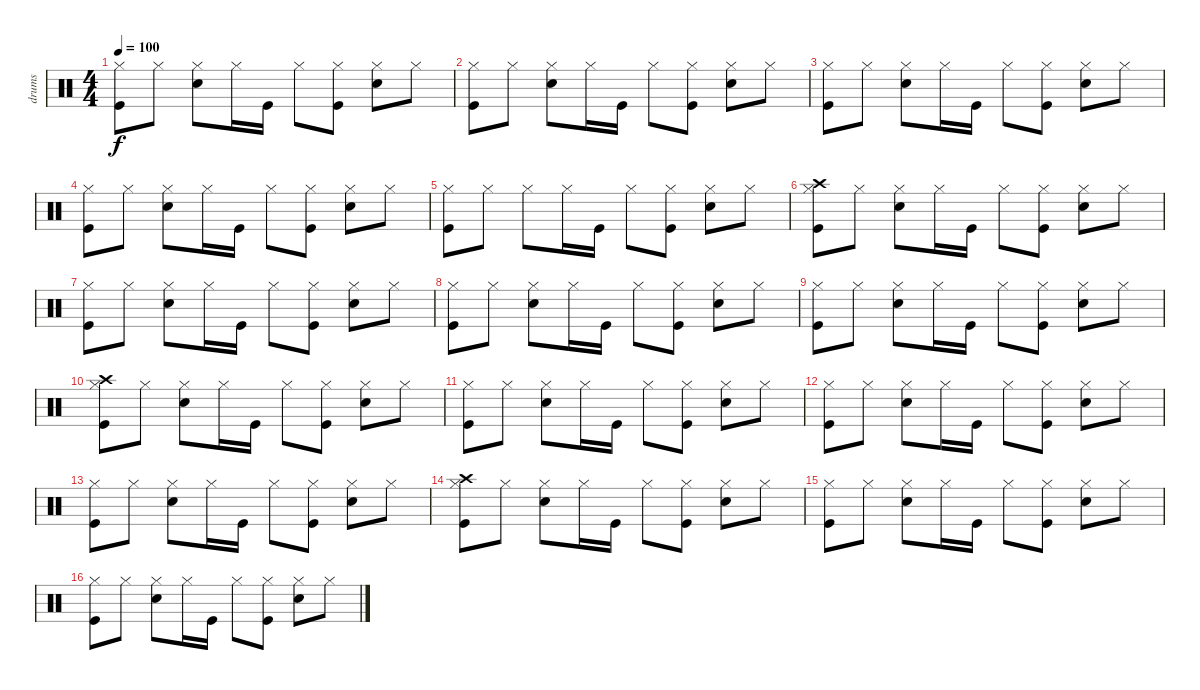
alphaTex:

\track ("drums" "drums") {instrument percussion}
\staff {score}
\articulation defaults
\ts (4 4)
\tempo 100
\clef neutral
\ks c
("Kick (hit)" "Hi-Hat (closed)").8{dy f} "Hi-Hat (closed)".8 ("Snare (hit) 2" "Hi-Hat (closed)").8 "Hi-Hat (closed)".16 "Kick (hit)".16 "Hi-Hat (closed)".8 ("Kick (hit)" "Hi-Hat (closed)").8 ("Snare (hit) 2" "Hi-Hat (closed)").8 "Hi-Hat (closed)".8 |
("Kick (hit)" "Hi-Hat (closed)").8 "Hi-Hat (closed)".8 ("Snare (hit) 2" "Hi-Hat (closed)").8 "Hi-Hat (closed)".16 "Kick (hit)".16 "Hi-Hat (closed)".8 ("Kick (hit)" "Hi-Hat (closed)").8 ("Snare (hit) 2" "Hi-Hat (closed)").8 "Hi-Hat (closed)".8 |
("Kick (hit)" "Hi-Hat (closed)").8 "Hi-Hat (closed)".8 ("Snare (hit) 2" "Hi-Hat (closed)").8 "Hi-Hat (closed)".16 "Kick (hit)".16 "Hi-Hat (closed)".8 ("Kick (hit)" "Hi-Hat (closed)").8 ("Snare (hit) 2" "Hi-Hat (closed)").8 "Hi-Hat (closed)".8 |
("Kick (hit)" "Hi-Hat (closed)").8 "Hi-Hat (closed)".8 ("Snare (hit) 2" "Hi-Hat (closed)").8 "Hi-Hat (closed)".16 "Kick (hit)".16 "Hi-Hat (closed)".8 ("Kick (hit)" "Hi-Hat (closed)").8 ("Snare (hit) 2" "Hi-Hat (closed)").8 "Hi-Hat (closed)".8 |
("Kick (hit)" "Hi-Hat (closed)").8 "Hi-Hat (closed)".8 "Hi-Hat (closed)".8 "Hi-Hat (closed)".16 "Kick (hit)".16 "Hi-Hat (closed)".8 ("Kick (hit)" "Hi-Hat (closed)").8 ("Snare (hit) 2" "Hi-Hat (closed)").8 "Hi-Hat (closed)".8 |
("Kick (hit)" "Hi-Hat (closed)" "Crash high (hit)").8 "Hi-Hat (closed)".8 ("Snare (hit) 2" "Hi-Hat (closed)").8 "Hi-Hat (closed)".16 "Kick (hit)".16 "Hi-Hat (closed)".8 ("Kick (hit)" "Hi-Hat (closed)").8 ("Snare (hit) 2" "Hi-Hat (closed)").8 "Hi-Hat (closed)".8 |
("Kick (hit)" "Hi-Hat (closed)").8 "Hi-Hat (closed)".8 ("Snare (hit) 2" "Hi-Hat (closed)").8 "Hi-Hat (closed)".16 "Kick (hit)".16 "Hi-Hat (closed)".8 ("Kick (hit)" "Hi-Hat (closed)").8 ("Snare (hit) 2" "Hi-Hat (closed)").8 "Hi-Hat (closed)".8 |
("Kick (hit)" "Hi-Hat (closed)").8 "Hi-Hat (closed)".8 ("Snare (hit) 2" "Hi-Hat (closed)").8 "Hi-Hat (closed)".16 "Kick (hit)".16 "Hi-Hat (closed)".8 ("Kick (hit)" "Hi-Hat (closed)").8 ("Snare (hit) 2" "Hi-Hat (closed)").8 "Hi-Hat (closed)".8 |
("Kick (hit)" "Hi-Hat (closed)").8 "Hi-Hat (closed)".8 ("Snare (hit) 2" "Hi-Hat (closed)").8 "Hi-Hat (closed)".16 "Kick (hit)".16 "Hi-Hat (closed)".8 ("Kick (hit)" "Hi-Hat (closed)").8 ("Snare (hit) 2" "Hi-Hat (closed)").8 "Hi-Hat (closed)".8 |
("Kick (hit)" "Hi-Hat (closed)" "Crash high (hit)").8 "Hi-Hat (closed)".8 ("Snare (hit) 2" "Hi-Hat (closed)").8 "Hi-Hat (closed)".16 "Kick (hit)".16 "Hi-Hat (closed)".8 ("Kick (hit)" "Hi-Hat (closed)").8 ("Snare (hit) 2" "Hi-Hat (closed)").8 "Hi-Hat (closed)".8 |
("Kick (hit)" "Hi-Hat (closed)").8 "Hi-Hat (closed)".8 ("Snare (hit) 2" "Hi-Hat (closed)").8 "Hi-Hat (closed)".16 "Kick (hit)".16 "Hi-Hat (closed)".8 ("Kick (hit)" "Hi-Hat (closed)").8 ("Snare (hit) 2" "Hi-Hat (closed)").8 "Hi-Hat (closed)".8 |
("Kick (hit)" "Hi-Hat (closed)").8 "Hi-Hat (closed)".8 ("Snare (hit) 2" "Hi-Hat (closed)").8 "Hi-Hat (closed)".16 "Kick (hit)".16 "Hi-Hat (closed)".8 ("Kick (hit)" "Hi-Hat (closed)").8 ("Snare (hit) 2" "Hi-Hat (closed)").8 "Hi-Hat (closed)".8 |
("Kick (hit)" "Hi-Hat (closed)").8 "Hi-Hat (closed)".8 ("Snare (hit) 2" "Hi-Hat (closed)").8 "Hi-Hat (closed)".16 "Kick (hit)".16 "Hi-Hat (closed)".8 ("Kick (hit)" "Hi-Hat (closed)").8 ("Snare (hit) 2" "Hi-Hat (closed)").8 "Hi-Hat (closed)".8 |
("Kick (hit)" "Hi-Hat (closed)" "Crash high (hit)").8 "Hi-Hat (closed)".8 ("Snare (hit) 2" "Hi-Hat (closed)").8 "Hi-Hat (closed)".16 "Kick (hit)".16 "Hi-Hat (closed)".8 ("Kick (hit)" "Hi-Hat (closed)").8 ("Snare (hit) 2" "Hi-Hat (closed)").8 "Hi-Hat (closed)".8 |
("Kick (hit)" "Hi-Hat (closed)").8 "Hi-Hat (closed)".8 ("Snare (hit) 2" "Hi-Hat (closed)").8 "Hi-Hat (closed)".16 "Kick (hit)".16 "Hi-Hat (closed)".8 ("Kick (hit)" "Hi-Hat (closed)").8 ("Snare (hit) 2" "Hi-Hat (closed)").8 "Hi-Hat (closed)".8 |
("Kick (hit)" "Hi-Hat (closed)").8 "Hi-Hat (closed)".8 ("Snare (hit) 2" "Hi-Hat (closed)").8 "Hi-Hat (closed)".16 "Kick (hit)".16 "Hi-Hat (closed)".8 ("Kick (hit)" "Hi-Hat (closed)").8 ("Snare (hit) 2" "Hi-Hat (closed)").8 "Hi-Hat (closed)".8
